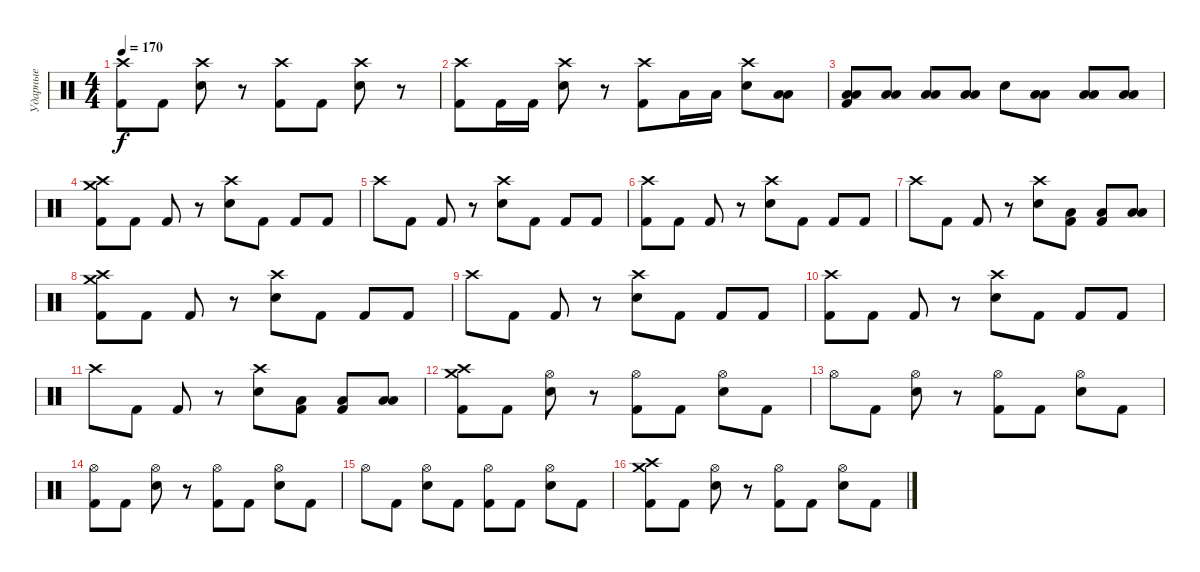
\track ("Ударные" "Ударные") {instrument percussion}
\staff {score}
\articulation defaults
\ts (4 4)
\tempo 170
\clef neutral
\ks c
("Crash high (hit)" "Kick (hit) 2").8{dy f} "Kick (hit) 2".8 ("Crash high (hit)" "Electric Snare (hit)").8 r.8 ("Crash high (hit)" "Kick (hit) 2").8 "Kick (hit) 2".8 ("Crash high (hit)" "Electric Snare (hit)").8 r.8 |
("Crash high (hit)" "Kick (hit) 2").8 "Kick (hit) 2".16 "Kick (hit) 2".16 ("Crash high (hit)" "Electric Snare (hit)").8 r.8 ("Crash high (hit)" "Kick (hit) 2").8 "Low Tom (hit)".16 "Low Tom (hit)".16 ("Crash high (hit)" "Electric Snare (hit)").8 ("Low Tom (hit)" "Low Floor Tom (hit)").8 |
("Low Tom (hit)" "Low Floor Tom (hit)" "Kick (hit) 2").8 ("Low Tom (hit)" "Low Floor Tom (hit)").8 ("Low Tom (hit)" "Low Floor Tom (hit)").8 ("Low Tom (hit)" "Low Floor Tom (hit)").8 "Electric Snare (hit)".8 ("Low Tom (hit)" "Low Floor Tom (hit)").8 ("Low Tom (hit)" "Low Floor Tom (hit)").8 ("Low Tom (hit)" "Low Floor Tom (hit)").8 |
("Crash medium (hit)" "Crash high (hit)" "Kick (hit) 2").8 "Kick (hit) 2".8 "Kick (hit) 2".8 r.8 ("Crash high (hit)" "Electric Snare (hit)").8 "Kick (hit) 2".8 "Kick (hit) 2".8 "Kick (hit) 2".8 |
"Crash high (hit)".8 "Kick (hit) 2".8 "Kick (hit) 2".8 r.8 ("Crash high (hit)" "Electric Snare (hit)").8 "Kick (hit) 2".8 "Kick (hit) 2".8 "Kick (hit) 2".8 |
("Crash high (hit)" "Kick (hit) 2").8 "Kick (hit) 2".8 "Kick (hit) 2".8 r.8 ("Crash high (hit)" "Electric Snare (hit)").8 "Kick (hit) 2".8 "Kick (hit) 2".8 "Kick (hit) 2".8 |
"Crash high (hit)".8 "Kick (hit) 2".8 "Kick (hit) 2".8 r.8 ("Crash high (hit)" "Electric Snare (hit)").8 ("Low Tom (hit)" "Kick (hit) 2").8 ("Low Floor Tom (hit)" "Kick (hit) 2").8 ("Low Tom (hit)" "Low Floor Tom (hit)").8 |
("Crash medium (hit)" "Crash high (hit)" "Kick (hit) 2").8 "Kick (hit) 2".8 "Kick (hit) 2".8 r.8 ("Crash high (hit)" "Electric Snare (hit)").8 "Kick (hit) 2".8 "Kick (hit) 2".8 "Kick (hit) 2".8 |
"Crash high (hit)".8 "Kick (hit) 2".8 "Kick (hit) 2".8 r.8 ("Crash high (hit)" "Electric Snare (hit)").8 "Kick (hit) 2".8 "Kick (hit) 2".8 "Kick (hit) 2".8 |
("Crash high (hit)" "Kick (hit) 2").8 "Kick (hit) 2".8 "Kick (hit) 2".8 r.8 ("Crash high (hit)" "Electric Snare (hit)").8 "Kick (hit) 2".8 "Kick (hit) 2".8 "Kick (hit) 2".8 |
"Crash high (hit)".8 "Kick (hit) 2".8 "Kick (hit) 2".8 r.8 ("Crash high (hit)" "Electric Snare (hit)").8 ("Low Tom (hit)" "Kick (hit) 2").8 ("Low Floor Tom (hit)" "Kick (hit) 2").8 ("Low Tom (hit)" "Low Floor Tom (hit)").8 |
("Crash medium (hit)" "Crash high (hit)" "Kick (hit) 2").8 "Kick (hit) 2".8 ("Hi-Hat (open)" "Electric Snare (hit)").8 r.8 ("Hi-Hat (open)" "Kick (hit) 2").8 "Kick (hit) 2".8 ("Hi-Hat (open)" "Electric Snare (hit)").8 "Kick (hit) 2".8 |
"Hi-Hat (open)".8 "Kick (hit) 2".8 ("Hi-Hat (open)" "Electric Snare (hit)").8 r.8 ("Hi-Hat (open)" "Kick (hit) 2").8 "Kick (hit) 2".8 ("Hi-Hat (open)" "Electric Snare (hit)").8 "Kick (hit) 2".8 |
("Hi-Hat (open)" "Kick (hit) 2").8 "Kick (hit) 2".8 ("Hi-Hat (open)" "Electric Snare (hit)").8 r.8 ("Hi-Hat (open)" "Kick (hit) 2").8 "Kick (hit) 2".8 ("Hi-Hat (open)" "Electric Snare (hit)").8 "Kick (hit) 2".8 |
"Hi-Hat (open)".8 "Kick (hit) 2".8 ("Hi-Hat (open)" "Electric Snare (hit)").8 "Kick (hit) 2".8 ("Hi-Hat (open)" "Kick (hit) 2").8 "Kick (hit) 2".8 ("Hi-Hat (open)" "Electric Snare (hit)").8 "Kick (hit) 2".8 |
("Crash medium (hit)" "Crash high (hit)" "Kick (hit) 2").8 "Kick (hit) 2".8 ("Hi-Hat (open)" "Electric Snare (hit)").8 r.8 ("Hi-Hat (open)" "Kick (hit) 2").8 "Kick (hit) 2".8 ("Hi-Hat (open)" "Electric Snare (hit)").8 "Kick (hit) 2".8
